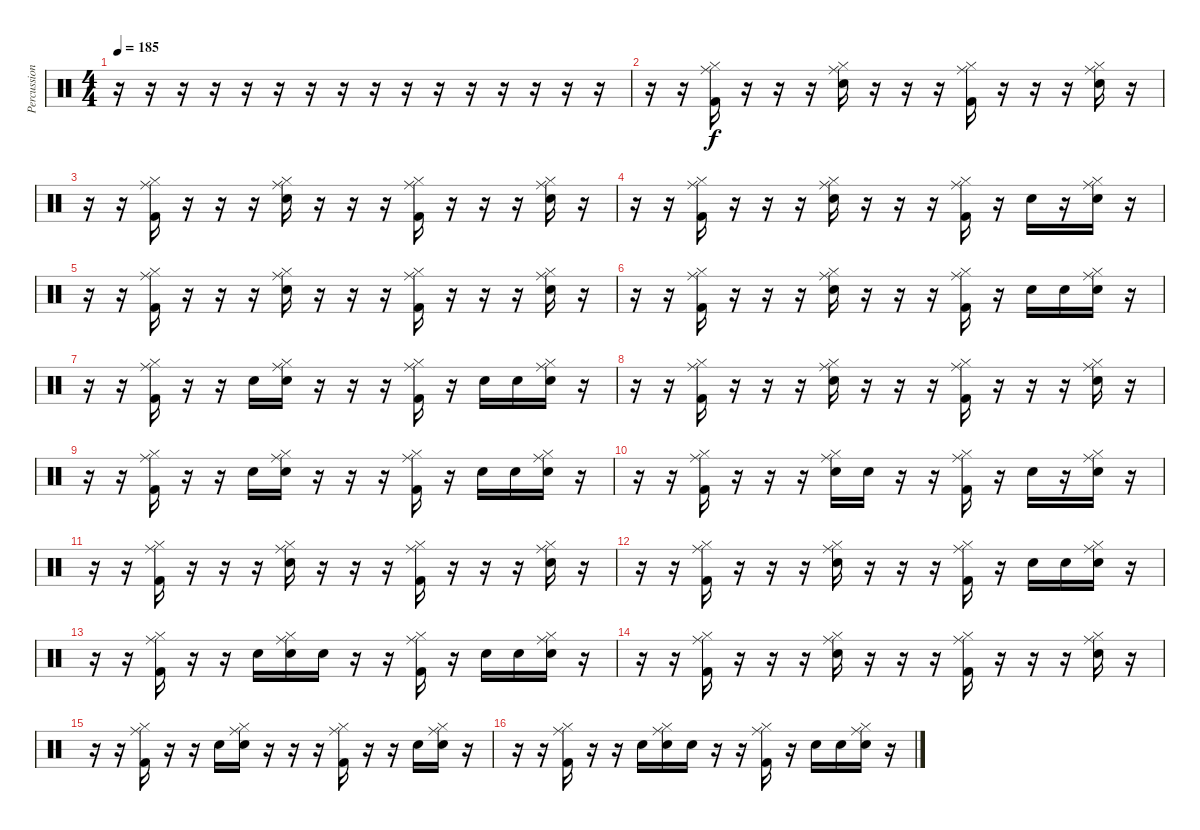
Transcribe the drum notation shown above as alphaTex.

\track ("Percussion" "Percussion") {instrument percussion}
\staff {score}
\articulation defaults
\ts (4 4)
\tempo 185
\clef neutral
\ks c
r.16{dy f} r.16 r.16 r.16 r.16 r.16 r.16 r.16 r.16 r.16 r.16 r.16 r.16 r.16 r.16 r.16 |
r.16 r.16 ("Ride (middle)" "Hi-Hat (closed)" "Kick (hit) 2").16 r.16 r.16 r.16 ("Ride (middle)" "Hi-Hat (closed)" "Snare (hit) 2").16 r.16 r.16 r.16 ("Ride (middle)" "Hi-Hat (closed)" "Kick (hit) 2").16 r.16 r.16 r.16 ("Ride (middle)" "Hi-Hat (closed)" "Snare (hit) 2").16 r.16 |
r.16 r.16 ("Ride (middle)" "Hi-Hat (closed)" "Kick (hit) 2").16 r.16 r.16 r.16 ("Ride (middle)" "Hi-Hat (closed)" "Snare (hit) 2").16 r.16 r.16 r.16 ("Ride (middle)" "Hi-Hat (closed)" "Kick (hit) 2").16 r.16 r.16 r.16 ("Ride (middle)" "Hi-Hat (closed)" "Snare (hit) 2").16 r.16 |
r.16 r.16 ("Ride (middle)" "Hi-Hat (closed)" "Kick (hit) 2").16 r.16 r.16 r.16 ("Ride (middle)" "Hi-Hat (closed)" "Snare (hit) 2").16 r.16 r.16 r.16 ("Ride (middle)" "Hi-Hat (closed)" "Kick (hit) 2").16 r.16 "Snare (hit) 2".16 r.16 ("Ride (middle)" "Hi-Hat (closed)" "Snare (hit) 2").16 r.16 |
r.16 r.16 ("Ride (middle)" "Hi-Hat (closed)" "Kick (hit) 2").16 r.16 r.16 r.16 ("Ride (middle)" "Hi-Hat (closed)" "Snare (hit) 2").16 r.16 r.16 r.16 ("Ride (middle)" "Hi-Hat (closed)" "Kick (hit) 2").16 r.16 r.16 r.16 ("Ride (middle)" "Hi-Hat (closed)" "Snare (hit) 2").16 r.16 |
r.16 r.16 ("Ride (middle)" "Hi-Hat (closed)" "Kick (hit) 2").16 r.16 r.16 r.16 ("Ride (middle)" "Hi-Hat (closed)" "Snare (hit) 2").16 r.16 r.16 r.16 ("Ride (middle)" "Hi-Hat (closed)" "Kick (hit) 2").16 r.16 "Snare (hit) 2".16 "Snare (hit) 2".16 ("Ride (middle)" "Hi-Hat (closed)" "Snare (hit) 2").16 r.16 |
r.16 r.16 ("Ride (middle)" "Hi-Hat (closed)" "Kick (hit) 2").16 r.16 r.16 "Snare (hit) 2".16 ("Ride (middle)" "Hi-Hat (closed)" "Snare (hit) 2").16 r.16 r.16 r.16 ("Ride (middle)" "Hi-Hat (closed)" "Kick (hit) 2").16 r.16 "Snare (hit) 2".16 "Snare (hit) 2".16 ("Ride (middle)" "Hi-Hat (closed)" "Snare (hit) 2").16 r.16 |
r.16 r.16 ("Ride (middle)" "Hi-Hat (closed)" "Kick (hit) 2").16 r.16 r.16 r.16 ("Ride (middle)" "Hi-Hat (closed)" "Snare (hit) 2").16 r.16 r.16 r.16 ("Ride (middle)" "Hi-Hat (closed)" "Kick (hit) 2").16 r.16 r.16 r.16 ("Ride (middle)" "Hi-Hat (closed)" "Snare (hit) 2").16 r.16 |
r.16 r.16 ("Ride (middle)" "Hi-Hat (closed)" "Kick (hit) 2").16 r.16 r.16 "Snare (hit) 2".16 ("Ride (middle)" "Hi-Hat (closed)" "Snare (hit) 2").16 r.16 r.16 r.16 ("Ride (middle)" "Hi-Hat (closed)" "Kick (hit) 2").16 r.16 "Snare (hit) 2".16 "Snare (hit) 2".16 ("Ride (middle)" "Hi-Hat (closed)" "Snare (hit) 2").16 r.16 |
r.16 r.16 ("Ride (middle)" "Hi-Hat (closed)" "Kick (hit) 2").16 r.16 r.16 r.16 ("Ride (middle)" "Hi-Hat (closed)" "Snare (hit) 2").16 "Snare (hit) 2".16 r.16 r.16 ("Ride (middle)" "Hi-Hat (closed)" "Kick (hit) 2").16 r.16 "Snare (hit) 2".16 r.16 ("Ride (middle)" "Hi-Hat (closed)" "Snare (hit) 2").16 r.16 |
r.16 r.16 ("Ride (middle)" "Hi-Hat (closed)" "Kick (hit) 2").16 r.16 r.16 r.16 ("Ride (middle)" "Hi-Hat (closed)" "Snare (hit) 2").16 r.16 r.16 r.16 ("Ride (middle)" "Hi-Hat (closed)" "Kick (hit) 2").16 r.16 r.16 r.16 ("Ride (middle)" "Hi-Hat (closed)" "Snare (hit) 2").16 r.16 |
r.16 r.16 ("Ride (middle)" "Hi-Hat (closed)" "Kick (hit) 2").16 r.16 r.16 r.16 ("Ride (middle)" "Hi-Hat (closed)" "Snare (hit) 2").16 r.16 r.16 r.16 ("Ride (middle)" "Hi-Hat (closed)" "Kick (hit) 2").16 r.16 "Snare (hit) 2".16 "Snare (hit) 2".16 ("Ride (middle)" "Hi-Hat (closed)" "Snare (hit) 2").16 r.16 |
r.16 r.16 ("Ride (middle)" "Hi-Hat (closed)" "Kick (hit) 2").16 r.16 r.16 "Snare (hit) 2".16 ("Ride (middle)" "Hi-Hat (closed)" "Snare (hit) 2").16 "Snare (hit) 2".16 r.16 r.16 ("Ride (middle)" "Hi-Hat (closed)" "Kick (hit) 2").16 r.16 "Snare (hit) 2".16 "Snare (hit) 2".16 ("Ride (middle)" "Hi-Hat (closed)" "Snare (hit) 2").16 r.16 |
r.16 r.16 ("Ride (middle)" "Hi-Hat (closed)" "Kick (hit) 2").16 r.16 r.16 r.16 ("Ride (middle)" "Hi-Hat (closed)" "Snare (hit) 2").16 r.16 r.16 r.16 ("Ride (middle)" "Hi-Hat (closed)" "Kick (hit) 2").16 r.16 r.16 r.16 ("Ride (middle)" "Hi-Hat (closed)" "Snare (hit) 2").16 r.16 |
r.16 r.16 ("Ride (middle)" "Hi-Hat (closed)" "Kick (hit) 2").16 r.16 r.16 "Snare (hit) 2".16 ("Ride (middle)" "Hi-Hat (closed)" "Snare (hit) 2").16 r.16 r.16 r.16 ("Ride (middle)" "Hi-Hat (closed)" "Kick (hit) 2").16 r.16 r.16 "Snare (hit) 2".16 ("Ride (middle)" "Hi-Hat (closed)" "Snare (hit) 2").16 r.16 |
r.16 r.16 ("Ride (middle)" "Hi-Hat (closed)" "Kick (hit) 2").16 r.16 r.16 "Snare (hit) 2".16 ("Ride (middle)" "Hi-Hat (closed)" "Snare (hit) 2").16 "Snare (hit) 2".16 r.16 r.16 ("Ride (middle)" "Hi-Hat (closed)" "Kick (hit) 2").16 r.16 "Snare (hit) 2".16 "Snare (hit) 2".16 ("Ride (middle)" "Hi-Hat (closed)" "Snare (hit) 2").16 r.16
